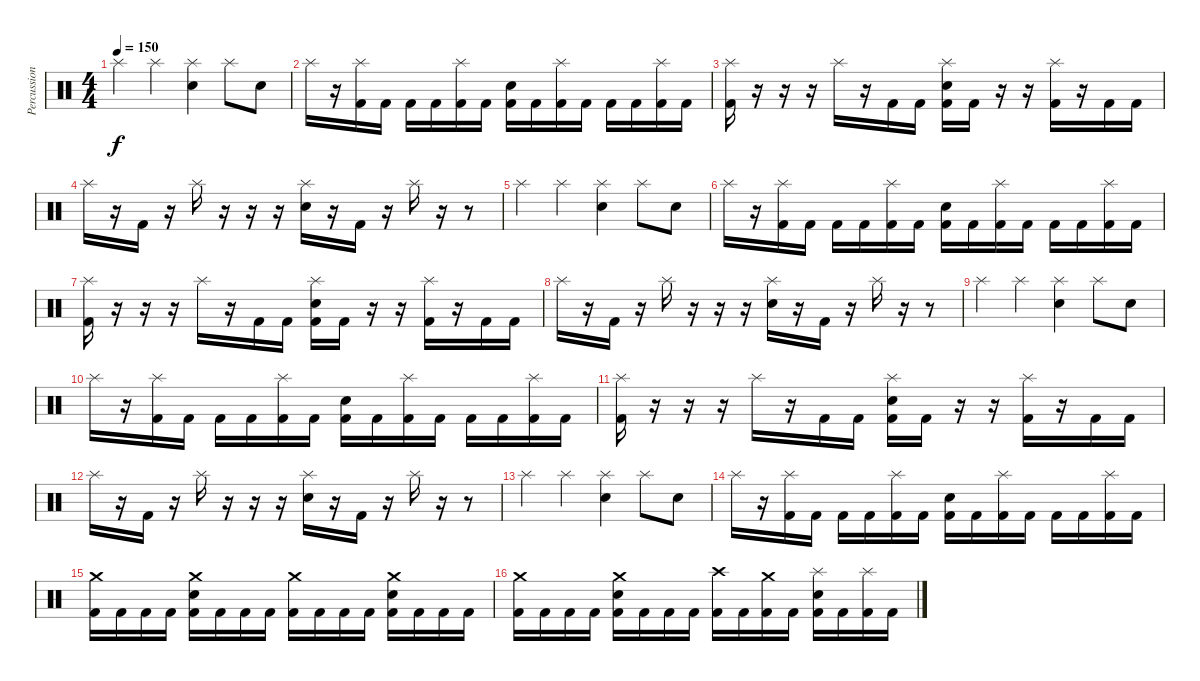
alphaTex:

\track ("Percussion" "Percussion") {instrument percussion}
\staff {score}
\articulation defaults
\ts (4 4)
\tempo 150
\clef neutral
\ks c "Splash (hit)".4{dy f} "Splash (hit)".4
("Splash (hit)" "Electric Snare (hit)").4 "Splash (hit)".8 "Electric Snare (hit)".8 |
"Splash (hit)".16 r.16 ("Splash (hit)" "Kick (hit) 2").16 "Kick (hit) 2".16 "Kick (hit) 2".16 "Kick (hit) 2".16 ("Splash (hit)" "Kick (hit) 2").16 "Kick (hit) 2".16 ("Electric Snare (hit)" "Kick (hit) 2").16 "Kick (hit) 2".16 ("Splash (hit)" "Kick (hit) 2").16 "Kick (hit) 2".16 "Kick (hit) 2".16 "Kick (hit) 2".16 ("Splash (hit)" "Kick (hit) 2").16 "Kick (hit) 2".16 |
("Splash (hit)" "Kick (hit) 2").16 r.16 r.16 r.16 "Splash (hit)".16 r.16 "Kick (hit) 2".16 "Kick (hit) 2".16 ("Splash (hit)" "Electric Snare (hit)" "Kick (hit) 2").16 "Kick (hit) 2".16 r.16 r.16 ("Splash (hit)" "Kick (hit) 2").16 r.16 "Kick (hit) 2".16 "Kick (hit) 2".16 |
"Splash (hit)".16 r.16 "Kick (hit) 2".16 r.16 "Splash (hit)".16 r.16 r.16 r.16 ("Splash (hit)" "Electric Snare (hit)").16 r.16 "Kick (hit) 2".16 r.16 "Splash (hit)".16 r.16 r.8 |
"Splash (hit)".4 "Splash (hit)".4 ("Splash (hit)" "Electric Snare (hit)").4 "Splash (hit)".8 "Electric Snare (hit)".8 |
"Splash (hit)".16 r.16 ("Splash (hit)" "Kick (hit) 2").16 "Kick (hit) 2".16 "Kick (hit) 2".16 "Kick (hit) 2".16 ("Splash (hit)" "Kick (hit) 2").16 "Kick (hit) 2".16 ("Electric Snare (hit)" "Kick (hit) 2").16 "Kick (hit) 2".16 ("Splash (hit)" "Kick (hit) 2").16 "Kick (hit) 2".16 "Kick (hit) 2".16 "Kick (hit) 2".16 ("Splash (hit)" "Kick (hit) 2").16 "Kick (hit) 2".16 |
("Splash (hit)" "Kick (hit) 2").16 r.16 r.16 r.16 "Splash (hit)".16 r.16 "Kick (hit) 2".16 "Kick (hit) 2".16 ("Splash (hit)" "Electric Snare (hit)" "Kick (hit) 2").16 "Kick (hit) 2".16 r.16 r.16 ("Splash (hit)" "Kick (hit) 2").16 r.16 "Kick (hit) 2".16 "Kick (hit) 2".16 |
"Splash (hit)".16 r.16 "Kick (hit) 2".16 r.16 "Splash (hit)".16 r.16 r.16 r.16 ("Splash (hit)" "Electric Snare (hit)").16 r.16 "Kick (hit) 2".16 r.16 "Splash (hit)".16 r.16 r.8 |
"Splash (hit)".4 "Splash (hit)".4 ("Splash (hit)" "Electric Snare (hit)").4 "Splash (hit)".8 "Electric Snare (hit)".8 |
"Splash (hit)".16 r.16 ("Splash (hit)" "Kick (hit) 2").16 "Kick (hit) 2".16 "Kick (hit) 2".16 "Kick (hit) 2".16 ("Splash (hit)" "Kick (hit) 2").16 "Kick (hit) 2".16 ("Electric Snare (hit)" "Kick (hit) 2").16 "Kick (hit) 2".16 ("Splash (hit)" "Kick (hit) 2").16 "Kick (hit) 2".16 "Kick (hit) 2".16 "Kick (hit) 2".16 ("Splash (hit)" "Kick (hit) 2").16 "Kick (hit) 2".16 |
("Splash (hit)" "Kick (hit) 2").16 r.16 r.16 r.16 "Splash (hit)".16 r.16 "Kick (hit) 2".16 "Kick (hit) 2".16 ("Splash (hit)" "Electric Snare (hit)" "Kick (hit) 2").16 "Kick (hit) 2".16 r.16 r.16 ("Splash (hit)" "Kick (hit) 2").16 r.16 "Kick (hit) 2".16 "Kick (hit) 2".16 |
"Splash (hit)".16 r.16 "Kick (hit) 2".16 r.16 "Splash (hit)".16 r.16 r.16 r.16 ("Splash (hit)" "Electric Snare (hit)").16 r.16 "Kick (hit) 2".16 r.16 "Splash (hit)".16 r.16 r.8 |
"Splash (hit)".4 "Splash (hit)".4 ("Splash (hit)" "Electric Snare (hit)").4 "Splash (hit)".8 "Electric Snare (hit)".8 |
"Splash (hit)".16 r.16 ("Splash (hit)" "Kick (hit) 2").16 "Kick (hit) 2".16 "Kick (hit) 2".16 "Kick (hit) 2".16 ("Splash (hit)" "Kick (hit) 2").16 "Kick (hit) 2".16 ("Electric Snare (hit)" "Kick (hit) 2").16 "Kick (hit) 2".16 ("Splash (hit)" "Kick (hit) 2").16 "Kick (hit) 2".16 "Kick (hit) 2".16 "Kick (hit) 2".16 ("Splash (hit)" "Kick (hit) 2").16 "Kick (hit) 2".16 |
("Crash medium (hit)" "Kick (hit) 2").16 "Kick (hit) 2".16 "Kick (hit) 2".16 "Kick (hit) 2".16 ("Crash medium (hit)" "Electric Snare (hit)" "Kick (hit) 2").16 "Kick (hit) 2".16 "Kick (hit) 2".16 "Kick (hit) 2".16 ("Crash medium (hit)" "Kick (hit) 2").16 "Kick (hit) 2".16 "Kick (hit) 2".16 "Kick (hit) 2".16 ("Crash medium (hit)" "Electric Snare (hit)" "Kick (hit) 2").16 "Kick (hit) 2".16 "Kick (hit) 2".16 "Kick (hit) 2".16 |
("Crash medium (hit)" "Kick (hit) 2").16 "Kick (hit) 2".16 "Kick (hit) 2".16 "Kick (hit) 2".16 ("Crash medium (hit)" "Electric Snare (hit)" "Kick (hit) 2").16 "Kick (hit) 2".16 "Kick (hit) 2".16 "Kick (hit) 2".16 ("Crash high (hit)" "Kick (hit) 2").16 "Kick (hit) 2".16 ("Crash medium (hit)" "Kick (hit) 2").16 "Kick (hit) 2".16 ("Splash (hit)" "Electric Snare (hit)" "Kick (hit) 2").16 "Kick (hit) 2".16 ("Splash (hit)" "Kick (hit) 2").16 "Kick (hit) 2".16
